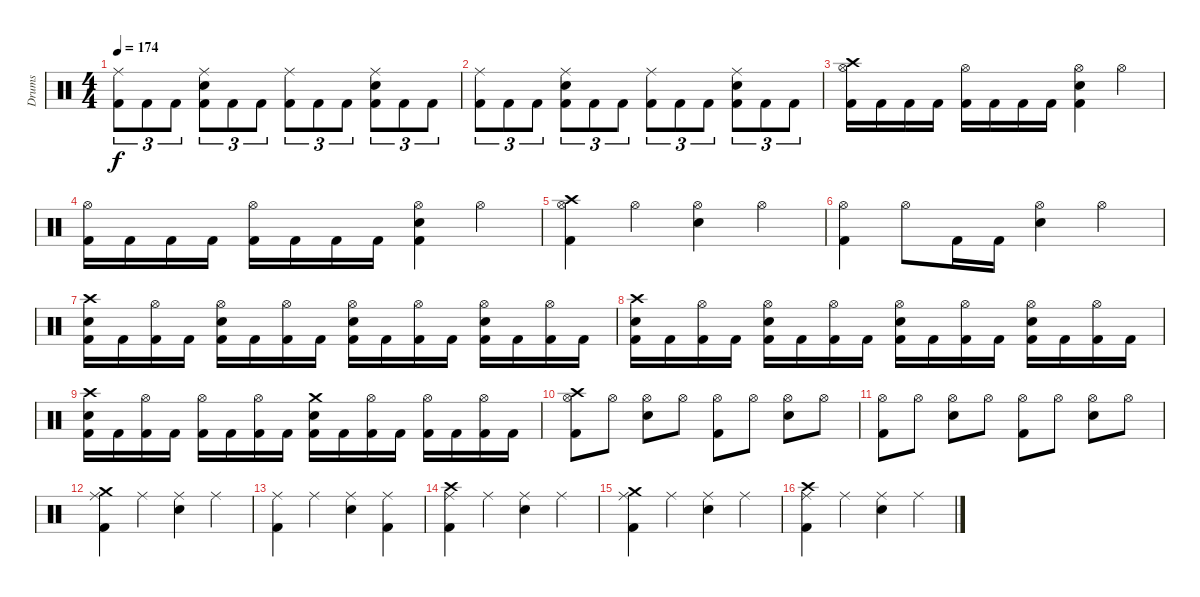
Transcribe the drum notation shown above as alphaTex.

\track ("Drums" "Drums") {instrument percussion}
\staff {score}
\articulation defaults
\ts (4 4)
\tempo 174
\clef neutral
\ks c
("Ride (middle)" "Kick (hit) 2").8{tu (3 2) dy f} "Kick (hit) 2".8{tu (3 2)} "Kick (hit) 2".8{tu (3 2)} ("Ride (middle)" "Snare (hit) 2" "Kick (hit) 2").8{tu (3 2)} "Kick (hit) 2".8{tu (3 2)} "Kick (hit) 2".8{tu (3 2)} ("Ride (middle)" "Kick (hit) 2").8{tu (3 2)} "Kick (hit) 2".8{tu (3 2)} "Kick (hit) 2".8{tu (3 2)} ("Ride (middle)" "Snare (hit) 2" "Kick (hit) 2").8{tu (3 2)} "Kick (hit) 2".8{tu (3 2)} "Kick (hit) 2".8{tu (3 2)} |
("Ride (middle)" "Kick (hit) 2").8{tu (3 2)} "Kick (hit) 2".8{tu (3 2)} "Kick (hit) 2".8{tu (3 2)} ("Ride (middle)" "Snare (hit) 2" "Kick (hit) 2").8{tu (3 2)} "Kick (hit) 2".8{tu (3 2)} "Kick (hit) 2".8{tu (3 2)} ("Ride (middle)" "Kick (hit) 2").8{tu (3 2)} "Kick (hit) 2".8{tu (3 2)} "Kick (hit) 2".8{tu (3 2)} ("Ride (middle)" "Snare (hit) 2" "Kick (hit) 2").8{tu (3 2)} "Kick (hit) 2".8{tu (3 2)} "Kick (hit) 2".8{tu (3 2)} |
("Hi-Hat (open)" "Crash high (hit)" "Kick (hit) 2").16 "Kick (hit) 2".16 "Kick (hit) 2".16 "Kick (hit) 2".16 ("Hi-Hat (open)" "Kick (hit) 2").16 "Kick (hit) 2".16 "Kick (hit) 2".16 "Kick (hit) 2".16 ("Hi-Hat (open)" "Snare (hit) 2" "Kick (hit) 2").4 "Hi-Hat (open)".4 |
("Hi-Hat (open)" "Kick (hit) 2").16 "Kick (hit) 2".16 "Kick (hit) 2".16 "Kick (hit) 2".16 ("Hi-Hat (open)" "Kick (hit) 2").16 "Kick (hit) 2".16 "Kick (hit) 2".16 "Kick (hit) 2".16 ("Hi-Hat (open)" "Snare (hit) 2" "Kick (hit) 2").4 "Hi-Hat (open)".4 |
("Hi-Hat (open)" "Crash high (hit)" "Kick (hit) 2").4 "Hi-Hat (open)".4 ("Hi-Hat (open)" "Snare (hit) 2").4 "Hi-Hat (open)".4 |
("Hi-Hat (open)" "Kick (hit) 2").4 "Hi-Hat (open)".8 "Kick (hit) 2".16 "Kick (hit) 2".16 ("Hi-Hat (open)" "Snare (hit) 2").4 "Hi-Hat (open)".4 |
("Crash high (hit)" "Snare (hit) 2" "Kick (hit) 2").16 "Kick (hit) 2".16 ("Hi-Hat (open)" "Kick (hit) 2").16 "Kick (hit) 2".16 ("Hi-Hat (open)" "Snare (hit) 2" "Kick (hit) 2").16 "Kick (hit) 2".16 ("Hi-Hat (open)" "Kick (hit) 2").16 "Kick (hit) 2".16 ("Hi-Hat (open)" "Snare (hit) 2" "Kick (hit) 2").16 "Kick (hit) 2".16 ("Hi-Hat (open)" "Kick (hit) 2").16 "Kick (hit) 2".16 ("Hi-Hat (open)" "Snare (hit) 2" "Kick (hit) 2").16 "Kick (hit) 2".16 ("Hi-Hat (open)" "Kick (hit) 2").16 "Kick (hit) 2".16 |
("Crash high (hit)" "Snare (hit) 2" "Kick (hit) 2").16 "Kick (hit) 2".16 ("Hi-Hat (open)" "Kick (hit) 2").16 "Kick (hit) 2".16 ("Hi-Hat (open)" "Snare (hit) 2" "Kick (hit) 2").16 "Kick (hit) 2".16 ("Hi-Hat (open)" "Kick (hit) 2").16 "Kick (hit) 2".16 ("Hi-Hat (open)" "Snare (hit) 2" "Kick (hit) 2").16 "Kick (hit) 2".16 ("Hi-Hat (open)" "Kick (hit) 2").16 "Kick (hit) 2".16 ("Hi-Hat (open)" "Snare (hit) 2" "Kick (hit) 2").16 "Kick (hit) 2".16 ("Hi-Hat (open)" "Kick (hit) 2").16 "Kick (hit) 2".16 |
("Crash high (hit)" "Snare (hit) 2" "Kick (hit) 2").16 "Kick (hit) 2".16 ("Hi-Hat (open)" "Kick (hit) 2").16 "Kick (hit) 2".16 ("Hi-Hat (open)" "Kick (hit) 2").16 "Kick (hit) 2".16 ("Hi-Hat (open)" "Kick (hit) 2").16 "Kick (hit) 2".16 ("Crash medium (hit)" "Snare (hit) 2" "Kick (hit) 2").16 "Kick (hit) 2".16 ("Hi-Hat (open)" "Kick (hit) 2").16 "Kick (hit) 2".16 ("Hi-Hat (open)" "Kick (hit) 2").16 "Kick (hit) 2".16 ("Hi-Hat (open)" "Kick (hit) 2").16 "Kick (hit) 2".16 |
("Hi-Hat (open)" "Crash high (hit)" "Kick (hit) 2").8 "Hi-Hat (open)".8 ("Hi-Hat (open)" "Snare (hit) 2").8 "Hi-Hat (open)".8 ("Hi-Hat (open)" "Kick (hit) 2").8 "Hi-Hat (open)".8 ("Hi-Hat (open)" "Snare (hit) 2").8 "Hi-Hat (open)".8 |
("Hi-Hat (open)" "Kick (hit) 2").8 "Hi-Hat (open)".8 ("Hi-Hat (open)" "Snare (hit) 2").8 "Hi-Hat (open)".8 ("Hi-Hat (open)" "Kick (hit) 2").8 "Hi-Hat (open)".8 ("Hi-Hat (open)" "Snare (hit) 2").8 "Hi-Hat (open)".8 |
("Crash medium (hit)" "Ride (middle)" "Kick (hit) 2").4 "Ride (middle)".4 ("Ride (middle)" "Snare (hit) 2").4 "Ride (middle)".4 |
("Ride (middle)" "Kick (hit) 2").4 "Ride (middle)".4 ("Ride (middle)" "Snare (hit) 2").4 ("Ride (middle)" "Kick (hit) 2").4 |
("Crash high (hit)" "Ride (middle)" "Kick (hit) 2").4 "Ride (middle)".4 ("Ride (middle)" "Snare (hit) 2").4 "Ride (middle)".4 |
("Crash medium (hit)" "Ride (middle)" "Kick (hit) 2").4 "Ride (middle)".4 ("Ride (middle)" "Snare (hit) 2").4 "Ride (middle)".4 |
("Crash high (hit)" "Ride (middle)" "Kick (hit) 2").4 "Ride (middle)".4 ("Ride (middle)" "Snare (hit) 2").4 "Ride (middle)".4
